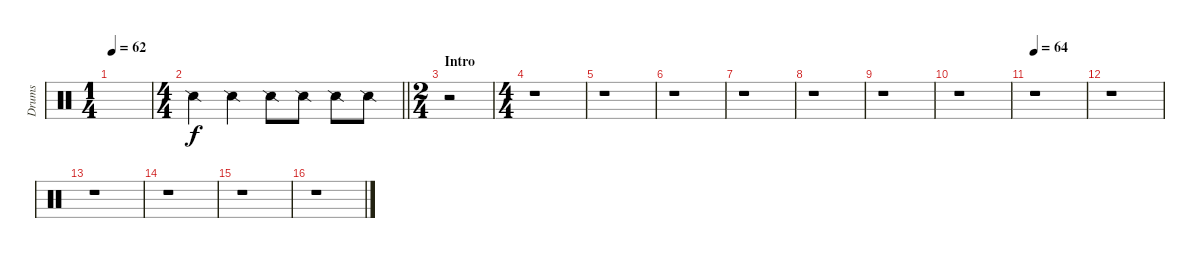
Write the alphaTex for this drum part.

\track ("Drums" "Drums") {instrument percussion}
\staff {score}
\articulation defaults
\ts (1 4)
\tempo 62
\clef neutral
\ks c
|
\ts (4 4)
\barLineRight lightlight "Snare (side stick) 2".4 "Snare (side stick) 2".4 "Snare (side stick) 2".8 "Snare (side stick) 2".8 "Snare (side stick) 2".8 "Snare (side stick) 2".8
|
\ts (2 4)
\section ("" "Intro")
r.2 |
\ts (4 4)
r.1 |
r.1 |
r.1 |
r.1 |
r.1 |
r.1 |
r.1 |
\tempo 64
r.1 |
r.1 |
r.1 |
r.1 |
r.1 |
r.1
